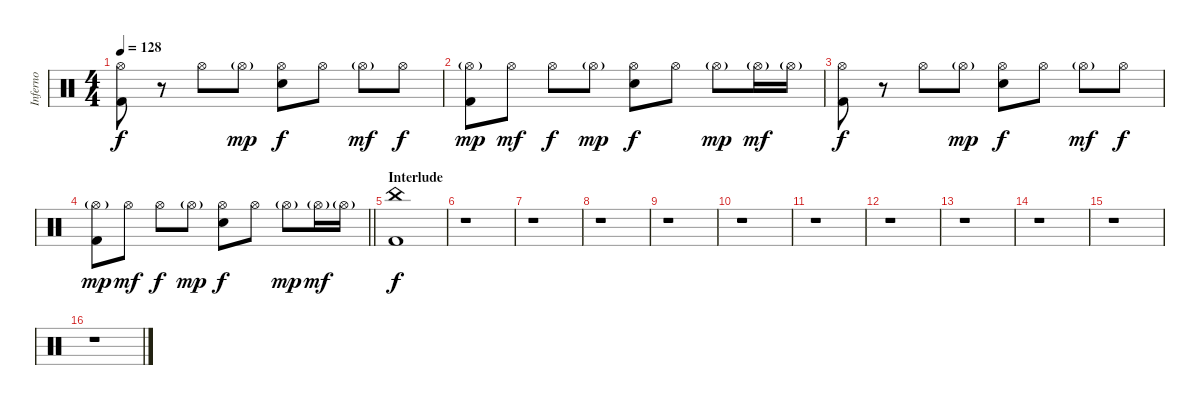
\track ("Inferno" "Inferno") {instrument percussion}
\staff {score}
\articulation defaults
\ts (4 4)
\tempo 128
\clef neutral
\ks c
("Hi-Hat (open)" "Kick (hit) 2").8{dy f} r.8 "Hi-Hat (open)".8 "Hi-Hat (open)"{g}.8{dy mp} ("Hi-Hat (open)" "Snare (hit) 2").8{dy f} "Hi-Hat (open)".8 "Hi-Hat (open)"{g}.8{dy mf} "Hi-Hat (open)".8{dy f} |
("Hi-Hat (open)"{g} "Kick (hit) 2").8{dy mp} "Hi-Hat (open)".8{dy mf} "Hi-Hat (open)".8{dy f} "Hi-Hat (open)"{g}.8{dy mp} ("Hi-Hat (open)" "Snare (hit) 2").8{dy f} "Hi-Hat (open)".8 "Hi-Hat (open)"{g}.8{dy mp} "Hi-Hat (open)"{g}.16{dy mf} "Hi-Hat (open)"{g}.16 |
("Hi-Hat (open)" "Kick (hit) 2").8{dy f} r.8 "Hi-Hat (open)".8 "Hi-Hat (open)"{g}.8{dy mp} ("Hi-Hat (open)" "Snare (hit) 2").8{dy f} "Hi-Hat (open)".8 "Hi-Hat (open)"{g}.8{dy mf} "Hi-Hat (open)".8{dy f} |
\barLineRight lightlight
("Hi-Hat (open)"{g} "Kick (hit) 2").8{dy mp} "Hi-Hat (open)".8{dy mf} "Hi-Hat (open)".8{dy f} "Hi-Hat (open)"{g}.8{dy mp} ("Hi-Hat (open)" "Snare (hit) 2").8{dy f} "Hi-Hat (open)".8 "Hi-Hat (open)"{g}.8{dy mp} "Hi-Hat (open)"{g}.16{dy mf} "Hi-Hat (open)"{g}.16 |
\section ("" "Interlude")
("China (hit)" "Kick (hit) 2").1{dy f} |
r.1 |
r.1 |
r.1 |
r.1 |
r.1 |
r.1 |
r.1 |
r.1 |
r.1 |
r.1 |
r.1
